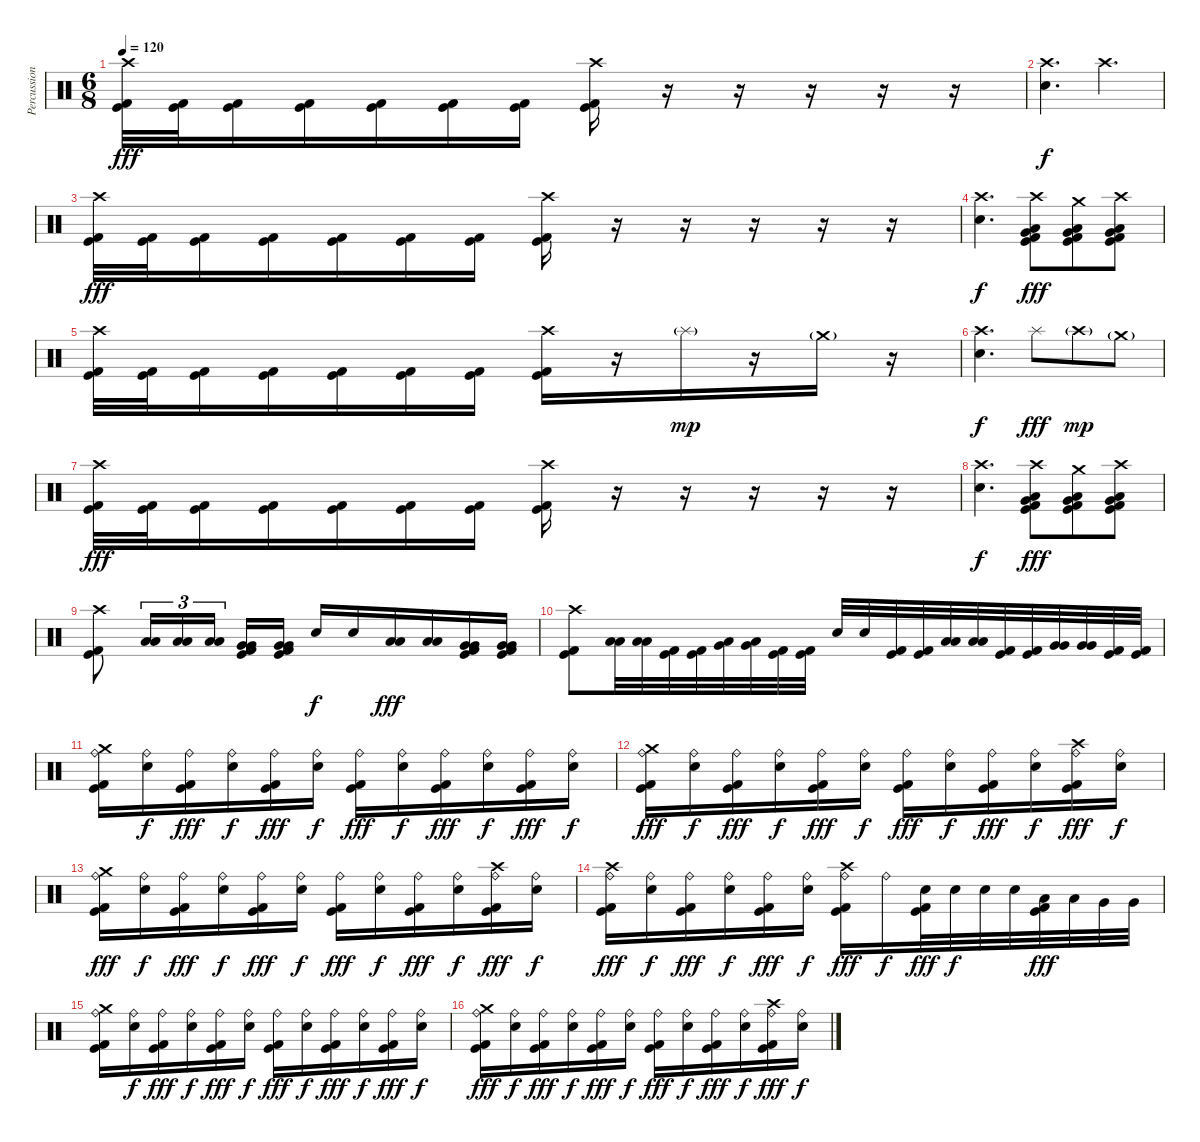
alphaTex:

\track ("Percussion" "Percussion") {instrument percussion}
\staff {score}
\articulation defaults
\ts (6 8)
\tempo 120
\clef neutral
\ks c
("Crash high (hit)" "Kick (hit)" "Kick (hit) 2").32{dy fff} ("Kick (hit)" "Kick (hit) 2").32 ("Kick (hit)" "Kick (hit) 2").16 ("Kick (hit)" "Kick (hit) 2").16 ("Kick (hit)" "Kick (hit) 2").16 ("Kick (hit)" "Kick (hit) 2").16 ("Kick (hit)" "Kick (hit) 2").16 ("Crash high (hit)" "Kick (hit)" "Kick (hit) 2").16 r.16 r.16 r.16 r.16 r.16 |
("Crash high (hit)" "Electric Snare (hit)").4{d dy f} "Crash high (hit)".4{d} |
("Crash high (hit)" "Kick (hit)" "Kick (hit) 2").32{dy fff} ("Kick (hit)" "Kick (hit) 2").32 ("Kick (hit)" "Kick (hit) 2").16 ("Kick (hit)" "Kick (hit) 2").16 ("Kick (hit)" "Kick (hit) 2").16 ("Kick (hit)" "Kick (hit) 2").16 ("Kick (hit)" "Kick (hit) 2").16 ("Crash high (hit)" "Kick (hit)" "Kick (hit) 2").16 r.16 r.16 r.16 r.16 r.16 |
("Crash high (hit)" "Electric Snare (hit)").4{d dy f} ("Crash high (hit)" "Very Low Tom (hit)" "Low Tom (hit)" "Kick (hit)" "Kick (hit) 2").8{dy fff} ("Crash medium (hit)" "Very Low Tom (hit)" "Low Tom (hit)" "Kick (hit)" "Kick (hit) 2").8 ("Crash high (hit)" "Very Low Tom (hit)" "Low Tom (hit)" "Kick (hit)" "Kick (hit) 2").8 |
("Crash high (hit)" "Kick (hit)" "Kick (hit) 2").32 ("Kick (hit)" "Kick (hit) 2").32 ("Kick (hit)" "Kick (hit) 2").16 ("Kick (hit)" "Kick (hit) 2").16 ("Kick (hit)" "Kick (hit) 2").16 ("Kick (hit)" "Kick (hit) 2").16 ("Kick (hit)" "Kick (hit) 2").16 ("Crash high (hit)" "Kick (hit)" "Kick (hit) 2").16 r.16 "Splash (hit)"{g}.16{dy mp} r.16 "Crash medium (hit)"{g}.16 r.16 |
("Crash high (hit)" "Electric Snare (hit)").4{d dy f} "Splash (hit)".8{dy fff} "Crash high (hit)"{g}.8{dy mp} "Crash medium (hit)"{g}.8 |
("Crash high (hit)" "Kick (hit)" "Kick (hit) 2").32{dy fff} ("Kick (hit)" "Kick (hit) 2").32 ("Kick (hit)" "Kick (hit) 2").16 ("Kick (hit)" "Kick (hit) 2").16 ("Kick (hit)" "Kick (hit) 2").16 ("Kick (hit)" "Kick (hit) 2").16 ("Kick (hit)" "Kick (hit) 2").16 ("Crash high (hit)" "Kick (hit)" "Kick (hit) 2").16 r.16 r.16 r.16 r.16 r.16 |
("Crash high (hit)" "Electric Snare (hit)").4{d dy f} ("Crash high (hit)" "Very Low Tom (hit)" "Low Tom (hit)" "Kick (hit)" "Kick (hit) 2").8{dy fff} ("Crash medium (hit)" "Very Low Tom (hit)" "Low Tom (hit)" "Kick (hit)" "Kick (hit) 2").8 ("Crash high (hit)" "Very Low Tom (hit)" "Low Tom (hit)" "Kick (hit)" "Kick (hit) 2").8 |
("Crash high (hit)" "Kick (hit)" "Kick (hit) 2").8 ("Low Tom (hit)" "Low Tom (hit)").16{tu (3 2)} ("Low Tom (hit)" "Low Tom (hit)").16{tu (3 2)} ("Low Tom (hit)" "Low Tom (hit)").16{tu (3 2) beam splitsecondary} ("Very Low Tom (hit)" "Very Low Tom (hit)" "Kick (hit)" "Kick (hit) 2").16 ("Very Low Tom (hit)" "Very Low Tom (hit)" "Kick (hit)" "Kick (hit) 2").16 "Electric Snare (hit)".16{dy f} "Electric Snare (hit)".16 ("Low Tom (hit)" "Low Tom (hit)").16{dy fff} ("Low Tom (hit)" "Low Tom (hit)").16 ("Very Low Tom (hit)" "Very Low Tom (hit)" "Kick (hit)" "Kick (hit) 2").16 ("Very Low Tom (hit)" "Very Low Tom (hit)" "Kick (hit)" "Kick (hit) 2").16 |
("Crash high (hit)" "Kick (hit)" "Kick (hit) 2").8 ("Low Tom (hit)" "Low Tom (hit)").32 ("Low Tom (hit)" "Low Tom (hit)").32 ("Kick (hit)" "Kick (hit) 2").32 ("Kick (hit)" "Kick (hit) 2").32 ("Very Low Tom (hit)" "Low Tom (hit)").32 ("Very Low Tom (hit)" "Low Tom (hit)").32 ("Kick (hit)" "Kick (hit) 2").32 ("Kick (hit)" "Kick (hit) 2").32 "Electric Snare (hit)".32 "Electric Snare (hit)".32 ("Kick (hit)" "Kick (hit) 2").32 ("Kick (hit)" "Kick (hit) 2").32 ("Low Tom (hit)" "Low Tom (hit)").32 ("Low Tom (hit)" "Low Tom (hit)").32 ("Kick (hit)" "Kick (hit) 2").32 ("Kick (hit)" "Kick (hit) 2").32 ("Very Low Tom (hit)" "Very Low Tom (hit)").32 ("Very Low Tom (hit)" "Very Low Tom (hit)").32 ("Kick (hit)" "Kick (hit) 2").32 ("Kick (hit)" "Kick (hit) 2").32 |
("Crash medium (hit)" "Ride (bell)" "Kick (hit)" "Kick (hit) 2").16 ("Ride (bell)" "Electric Snare (hit)").16{dy f} ("Ride (bell)" "Kick (hit)" "Kick (hit) 2").16{dy fff} ("Ride (bell)" "Electric Snare (hit)").16{dy f} ("Ride (bell)" "Kick (hit)" "Kick (hit) 2").16{dy fff} ("Ride (bell)" "Electric Snare (hit)").16{dy f} ("Ride (bell)" "Kick (hit)" "Kick (hit) 2").16{dy fff} ("Ride (bell)" "Electric Snare (hit)").16{dy f} ("Ride (bell)" "Kick (hit)" "Kick (hit) 2").16{dy fff} ("Ride (bell)" "Electric Snare (hit)").16{dy f} ("Ride (bell)" "Kick (hit)" "Kick (hit) 2").16{dy fff} ("Ride (bell)" "Electric Snare (hit)").16{dy f} |
("Crash medium (hit)" "Ride (bell)" "Kick (hit)" "Kick (hit) 2").16{dy fff} ("Ride (bell)" "Electric Snare (hit)").16{dy f} ("Ride (bell)" "Kick (hit)" "Kick (hit) 2").16{dy fff} ("Ride (bell)" "Electric Snare (hit)").16{dy f} ("Ride (bell)" "Kick (hit)" "Kick (hit) 2").16{dy fff} ("Ride (bell)" "Electric Snare (hit)").16{dy f} ("Ride (bell)" "Kick (hit)" "Kick (hit) 2").16{dy fff} ("Ride (bell)" "Electric Snare (hit)").16{dy f} ("Ride (bell)" "Kick (hit)" "Kick (hit) 2").16{dy fff} ("Ride (bell)" "Electric Snare (hit)").16{dy f} ("Crash high (hit)" "Ride (bell)" "Kick (hit)" "Kick (hit) 2").16{dy fff} ("Ride (bell)" "Electric Snare (hit)").16{dy f} |
("Crash medium (hit)" "Ride (bell)" "Kick (hit)" "Kick (hit) 2").16{dy fff} ("Ride (bell)" "Electric Snare (hit)").16{dy f} ("Ride (bell)" "Kick (hit)" "Kick (hit) 2").16{dy fff} ("Ride (bell)" "Electric Snare (hit)").16{dy f} ("Ride (bell)" "Kick (hit)" "Kick (hit) 2").16{dy fff} ("Ride (bell)" "Electric Snare (hit)").16{dy f} ("Ride (bell)" "Kick (hit)" "Kick (hit) 2").16{dy fff} ("Ride (bell)" "Electric Snare (hit)").16{dy f} ("Ride (bell)" "Kick (hit)" "Kick (hit) 2").16{dy fff} ("Ride (bell)" "Electric Snare (hit)").16{dy f} ("Crash high (hit)" "Ride (bell)" "Kick (hit)" "Kick (hit) 2").16{dy fff} ("Ride (bell)" "Electric Snare (hit)").16{dy f} |
("Crash high (hit)" "Ride (bell)" "Kick (hit)" "Kick (hit) 2").16{dy fff} ("Ride (bell)" "Electric Snare (hit)").16{dy f} ("Ride (bell)" "Kick (hit)" "Kick (hit) 2").16{dy fff} ("Ride (bell)" "Electric Snare (hit)").16{dy f} ("Ride (bell)" "Kick (hit)" "Kick (hit) 2").16{dy fff} ("Ride (bell)" "Electric Snare (hit)").16{dy f} ("Crash high (hit)" "Ride (bell)" "Kick (hit)" "Kick (hit) 2").16{dy fff} "Ride (bell)".16{dy f} ("Electric Snare (hit)" "Kick (hit)" "Kick (hit) 2").32{dy fff} "Electric Snare (hit)".32{dy f} "Electric Snare (hit)".32 "Electric Snare (hit)".32 ("Low Tom (hit)" "Kick (hit)" "Kick (hit) 2").32{dy fff} "Low Tom (hit)".32 "Very Low Tom (hit)".32 "Very Low Tom (hit)".32 |
("Crash medium (hit)" "Ride (bell)" "Kick (hit)" "Kick (hit) 2").16 ("Ride (bell)" "Electric Snare (hit)").16{dy f} ("Ride (bell)" "Kick (hit)" "Kick (hit) 2").16{dy fff} ("Ride (bell)" "Electric Snare (hit)").16{dy f} ("Ride (bell)" "Kick (hit)" "Kick (hit) 2").16{dy fff} ("Ride (bell)" "Electric Snare (hit)").16{dy f} ("Ride (bell)" "Kick (hit)" "Kick (hit) 2").16{dy fff} ("Ride (bell)" "Electric Snare (hit)").16{dy f} ("Ride (bell)" "Kick (hit)" "Kick (hit) 2").16{dy fff} ("Ride (bell)" "Electric Snare (hit)").16{dy f} ("Ride (bell)" "Kick (hit)" "Kick (hit) 2").16{dy fff} ("Ride (bell)" "Electric Snare (hit)").16{dy f} |
("Crash medium (hit)" "Ride (bell)" "Kick (hit)" "Kick (hit) 2").16{dy fff} ("Ride (bell)" "Electric Snare (hit)").16{dy f} ("Ride (bell)" "Kick (hit)" "Kick (hit) 2").16{dy fff} ("Ride (bell)" "Electric Snare (hit)").16{dy f} ("Ride (bell)" "Kick (hit)" "Kick (hit) 2").16{dy fff} ("Ride (bell)" "Electric Snare (hit)").16{dy f} ("Ride (bell)" "Kick (hit)" "Kick (hit) 2").16{dy fff} ("Ride (bell)" "Electric Snare (hit)").16{dy f} ("Ride (bell)" "Kick (hit)" "Kick (hit) 2").16{dy fff} ("Ride (bell)" "Electric Snare (hit)").16{dy f} ("Crash high (hit)" "Ride (bell)" "Kick (hit)" "Kick (hit) 2").16{dy fff} ("Ride (bell)" "Electric Snare (hit)").16{dy f}
